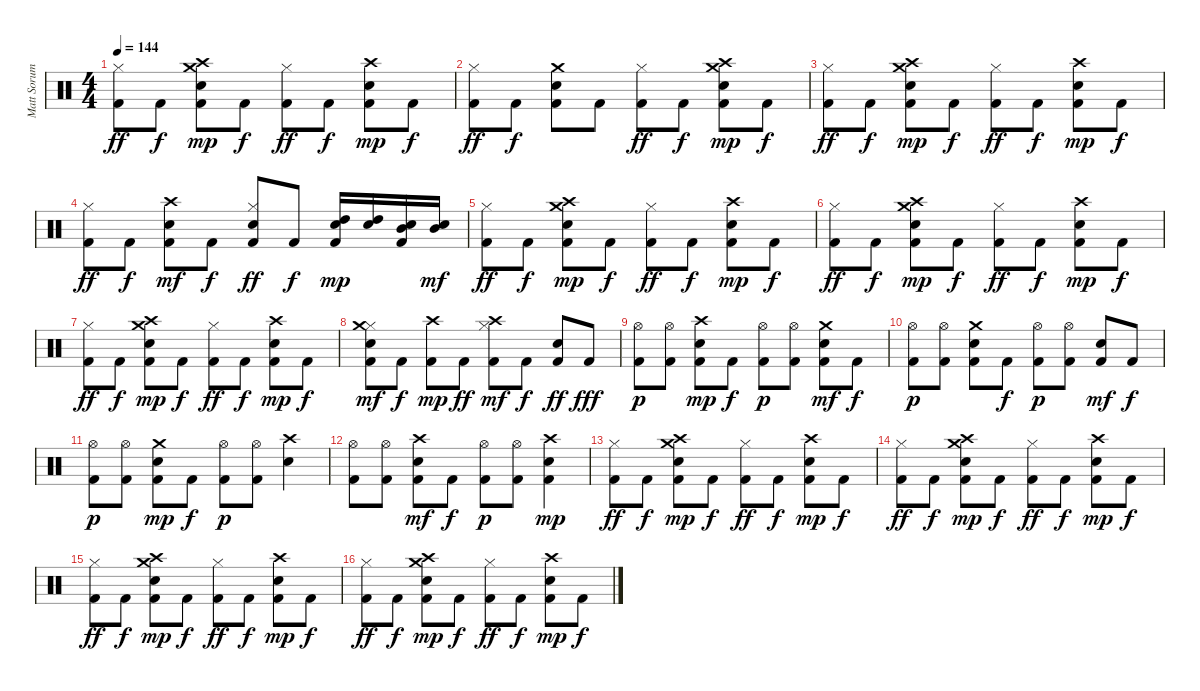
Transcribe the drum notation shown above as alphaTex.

\track ("Matt Sorum" "Matt Sorum") {instrument percussion}
\staff {score}
\articulation defaults
\ts (4 4)
\tempo 144
\clef neutral
\ks c
("Kick (hit) 2" "Hi-Hat (closed)").8{dy ff} "Kick (hit) 2".8{dy f} ("Kick (hit) 2" "Snare (hit) 2" "Crash medium (hit)" "Crash high (hit)").8{dy mp} "Kick (hit) 2".8{dy f} ("Kick (hit) 2" "Hi-Hat (closed)").8{dy ff} "Kick (hit) 2".8{dy f} ("Kick (hit) 2" "Snare (hit) 2" "Crash high (hit)").8{dy mp} "Kick (hit) 2".8{dy f} |
("Kick (hit) 2" "Hi-Hat (closed)").8{dy ff} "Kick (hit) 2".8{dy f} ("Kick (hit) 2" "Snare (hit) 2" "Crash medium (hit)").8 "Kick (hit) 2".8 ("Kick (hit) 2" "Hi-Hat (closed)").8{dy ff} "Kick (hit) 2".8{dy f} ("Kick (hit) 2" "Snare (hit) 2" "Crash medium (hit)" "Crash high (hit)").8{dy mp} "Kick (hit) 2".8{dy f} |
("Kick (hit) 2" "Hi-Hat (closed)").8{dy ff} "Kick (hit) 2".8{dy f} ("Kick (hit) 2" "Snare (hit) 2" "Crash medium (hit)" "Crash high (hit)").8{dy mp} "Kick (hit) 2".8{dy f} ("Kick (hit) 2" "Hi-Hat (closed)").8{dy ff} "Kick (hit) 2".8{dy f} ("Kick (hit) 2" "Snare (hit) 2" "Crash high (hit)").8{dy mp} "Kick (hit) 2".8{dy f} |
("Kick (hit) 2" "Hi-Hat (closed)").8{dy ff} "Kick (hit) 2".8{dy f} ("Kick (hit) 2" "Snare (hit) 2" "Crash high (hit)").8{dy mf} "Kick (hit) 2".8{dy f} ("Kick (hit) 2" "Snare (hit) 2" "Hi-Hat (closed)").8{dy ff} "Kick (hit) 2".8{dy f} ("Kick (hit) 2" "Snare (hit) 2" "High Tom (hit)").16{dy mp} ("Snare (hit) 2" "High Tom (hit)").16 ("Kick (hit) 2" "Snare (hit) 2" "Mid Tom (hit)").16 ("Snare (hit) 2" "Mid Tom (hit)").16{dy mf} |
("Kick (hit) 2" "Hi-Hat (closed)").8{dy ff} "Kick (hit) 2".8{dy f} ("Kick (hit) 2" "Snare (hit) 2" "Crash medium (hit)" "Crash high (hit)").8{dy mp} "Kick (hit) 2".8{dy f} ("Kick (hit) 2" "Hi-Hat (closed)").8{dy ff} "Kick (hit) 2".8{dy f} ("Kick (hit) 2" "Snare (hit) 2" "Crash high (hit)").8{dy mp} "Kick (hit) 2".8{dy f} |
("Kick (hit) 2" "Hi-Hat (closed)").8{dy ff} "Kick (hit) 2".8{dy f} ("Kick (hit) 2" "Snare (hit) 2" "Crash medium (hit)" "Crash high (hit)").8{dy mp} "Kick (hit) 2".8{dy f} ("Kick (hit) 2" "Hi-Hat (closed)").8{dy ff} "Kick (hit) 2".8{dy f} ("Kick (hit) 2" "Snare (hit) 2" "Crash high (hit)").8{dy mp} "Kick (hit) 2".8{dy f} |
("Kick (hit) 2" "Hi-Hat (closed)").8{dy ff} "Kick (hit) 2".8{dy f} ("Kick (hit) 2" "Snare (hit) 2" "Crash medium (hit)" "Crash high (hit)").8{dy mp} "Kick (hit) 2".8{dy f} ("Kick (hit) 2" "Hi-Hat (closed)").8{dy ff} "Kick (hit) 2".8{dy f} ("Kick (hit) 2" "Snare (hit) 2" "Crash high (hit)").8{dy mp} "Kick (hit) 2".8{dy f} |
("Kick (hit) 2" "Snare (hit) 2" "Hi-Hat (closed)" "Crash medium (hit)").8{dy mf} "Kick (hit) 2".8{dy f} ("Kick (hit) 2" "Crash high (hit)").8{dy mp} "Kick (hit) 2".8{dy ff} ("Kick (hit) 2" "Hi-Hat (closed)" "Crash high (hit)").8{dy mf} "Kick (hit) 2".8{dy f} ("Kick (hit) 2" "Snare (hit) 2").8{dy ff} "Kick (hit) 2".8{dy fff} |
("Kick (hit) 2" "Hi-Hat (open)").8{dy p} ("Kick (hit) 2" "Hi-Hat (open)").8 ("Kick (hit) 2" "Snare (hit) 2" "Crash high (hit)").8{dy mp} "Kick (hit) 2".8{dy f} ("Kick (hit) 2" "Hi-Hat (open)").8{dy p} ("Kick (hit) 2" "Hi-Hat (open)").8 ("Kick (hit) 2" "Snare (hit) 2" "Crash medium (hit)").8{dy mf} "Kick (hit) 2".8{dy f} |
("Kick (hit) 2" "Hi-Hat (open)").8{dy p} ("Kick (hit) 2" "Hi-Hat (open)").8 ("Kick (hit) 2" "Snare (hit) 2" "Crash medium (hit)").8 "Kick (hit) 2".8{dy f} ("Kick (hit) 2" "Hi-Hat (open)").8{dy p} ("Kick (hit) 2" "Hi-Hat (open)").8 ("Kick (hit) 2" "Snare (hit) 2").8{dy mf} "Kick (hit) 2".8{dy f} |
("Kick (hit) 2" "Hi-Hat (open)").8{dy p} ("Kick (hit) 2" "Hi-Hat (open)").8 ("Kick (hit) 2" "Snare (hit) 2" "Crash medium (hit)").8{dy mp} "Kick (hit) 2".8{dy f} ("Kick (hit) 2" "Hi-Hat (open)").8{dy p} ("Kick (hit) 2" "Hi-Hat (open)").8 ("Snare (hit) 2" "Crash high (hit)").4 |
("Kick (hit) 2" "Hi-Hat (open)").8 ("Kick (hit) 2" "Hi-Hat (open)").8 ("Kick (hit) 2" "Snare (hit) 2" "Crash high (hit)").8{dy mf} "Kick (hit) 2".8{dy f} ("Kick (hit) 2" "Hi-Hat (open)").8{dy p} ("Kick (hit) 2" "Hi-Hat (open)").8 ("Kick (hit) 2" "Snare (hit) 2" "Crash high (hit)").4{dy mp} |
("Kick (hit) 2" "Hi-Hat (closed)").8{dy ff} "Kick (hit) 2".8{dy f} ("Kick (hit) 2" "Snare (hit) 2" "Crash medium (hit)" "Crash high (hit)").8{dy mp} "Kick (hit) 2".8{dy f} ("Kick (hit) 2" "Hi-Hat (closed)").8{dy ff} "Kick (hit) 2".8{dy f} ("Kick (hit) 2" "Snare (hit) 2" "Crash high (hit)").8{dy mp} "Kick (hit) 2".8{dy f} |
("Kick (hit) 2" "Hi-Hat (closed)").8{dy ff} "Kick (hit) 2".8{dy f} ("Kick (hit) 2" "Snare (hit) 2" "Crash medium (hit)" "Crash high (hit)").8{dy mp} "Kick (hit) 2".8{dy f} ("Kick (hit) 2" "Hi-Hat (closed)").8{dy ff} "Kick (hit) 2".8{dy f} ("Kick (hit) 2" "Snare (hit) 2" "Crash high (hit)").8{dy mp} "Kick (hit) 2".8{dy f} |
("Kick (hit) 2" "Hi-Hat (closed)").8{dy ff} "Kick (hit) 2".8{dy f} ("Kick (hit) 2" "Snare (hit) 2" "Crash medium (hit)" "Crash high (hit)").8{dy mp} "Kick (hit) 2".8{dy f} ("Kick (hit) 2" "Hi-Hat (closed)").8{dy ff} "Kick (hit) 2".8{dy f} ("Kick (hit) 2" "Snare (hit) 2" "Crash high (hit)").8{dy mp} "Kick (hit) 2".8{dy f} |
("Kick (hit) 2" "Hi-Hat (closed)").8{dy ff} "Kick (hit) 2".8{dy f} ("Kick (hit) 2" "Snare (hit) 2" "Crash medium (hit)" "Crash high (hit)").8{dy mp} "Kick (hit) 2".8{dy f} ("Kick (hit) 2" "Hi-Hat (closed)").8{dy ff} "Kick (hit) 2".8{dy f} ("Kick (hit) 2" "Snare (hit) 2" "Crash high (hit)").8{dy mp} "Kick (hit) 2".8{dy f}
